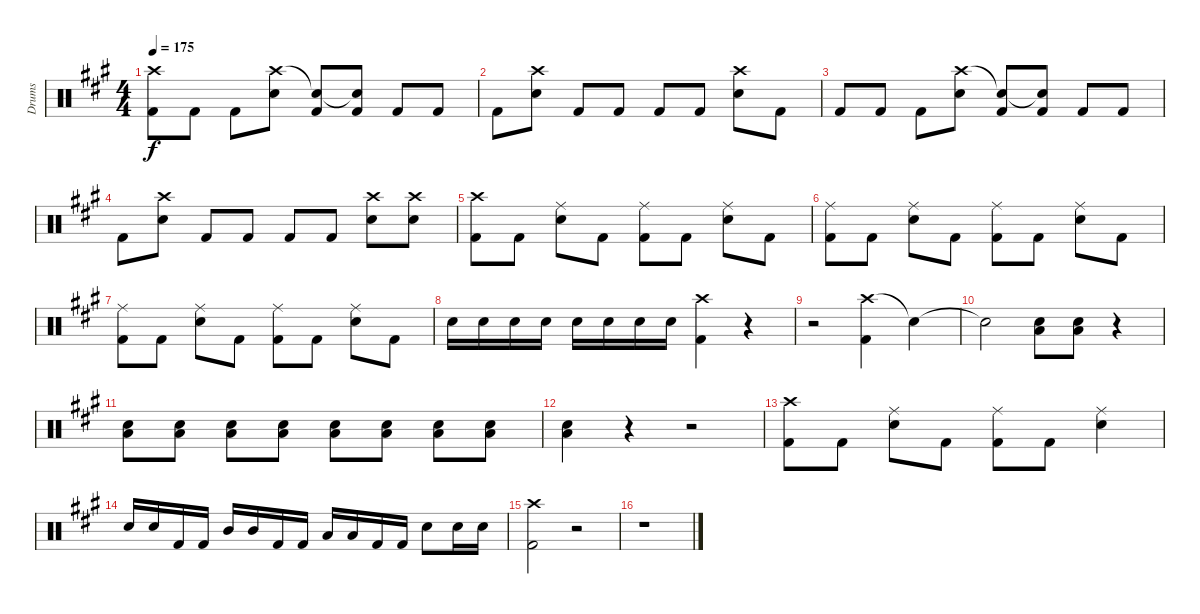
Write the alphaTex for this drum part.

\track ("Drums" "Drums") {instrument percussion}
\staff {score}
\articulation defaults
\ts (4 4)
\tempo 175
\clef neutral
\ks a
("Crash high (hit)" "Kick (hit) 2").8{dy f} "Kick (hit) 2".8 "Kick (hit) 2".8 ("Crash high (hit)" "Snare (hit) 2").8 ("Snare (hit)"{t} "Kick (hit) 2").8 ("Snare (hit)"{t} "Kick (hit) 2").8 "Kick (hit) 2".8 "Kick (hit) 2".8 |
"Kick (hit) 2".8 ("Crash high (hit)" "Snare (hit) 2").8 "Kick (hit) 2".8 "Kick (hit) 2".8 "Kick (hit) 2".8 "Kick (hit) 2".8 ("Crash high (hit)" "Snare (hit) 2").8 "Kick (hit) 2".8 |
"Kick (hit) 2".8 "Kick (hit) 2".8 "Kick (hit) 2".8 ("Crash high (hit)" "Snare (hit) 2").8 ("Snare (hit)"{t} "Kick (hit) 2").8 ("Snare (hit)"{t} "Kick (hit) 2").8 "Kick (hit) 2".8 "Kick (hit) 2".8 |
"Kick (hit) 2".8 ("Crash high (hit)" "Snare (hit) 2").8 "Kick (hit) 2".8 "Kick (hit) 2".8 "Kick (hit) 2".8 "Kick (hit) 2".8 ("Crash high (hit)" "Snare (hit) 2").8 ("Crash high (hit)" "Snare (hit) 2").8 |
("Crash high (hit)" "Kick (hit) 2").8 "Kick (hit) 2".8 ("Ride (middle)" "Snare (hit) 2").8 "Kick (hit) 2".8 ("Ride (middle)" "Kick (hit) 2").8 "Kick (hit) 2".8 ("Ride (middle)" "Snare (hit) 2").8 "Kick (hit) 2".8 |
("Ride (middle)" "Kick (hit) 2").8 "Kick (hit) 2".8 ("Ride (middle)" "Snare (hit) 2").8 "Kick (hit) 2".8 ("Ride (middle)" "Kick (hit) 2").8 "Kick (hit) 2".8 ("Ride (middle)" "Snare (hit) 2").8 "Kick (hit) 2".8 |
("Ride (middle)" "Kick (hit) 2").8 "Kick (hit) 2".8 ("Ride (middle)" "Snare (hit) 2").8 "Kick (hit) 2".8 ("Ride (middle)" "Kick (hit) 2").8 "Kick (hit) 2".8 ("Ride (middle)" "Snare (hit) 2").8 "Kick (hit) 2".8 |
"Snare (hit) 2".16 "Snare (hit) 2".16 "Snare (hit) 2".16 "Snare (hit) 2".16 "Snare (hit) 2".16 "Snare (hit) 2".16 "Snare (hit) 2".16 "Snare (hit) 2".16 ("Crash high (hit)" "Kick (hit) 2").4 r.4 |
r.2 ("Crash high (hit)" "Kick (hit) 2").4 "Snare (hit)"{t}.4 |
"Snare (hit)"{t}.2 ("Snare (hit) 2" "Low Floor Tom (hit)").8 ("Snare (hit) 2" "Low Floor Tom (hit)").8 r.4 |
("Snare (hit) 2" "Low Floor Tom (hit)").8 ("Snare (hit) 2" "Low Floor Tom (hit)").8 ("Snare (hit) 2" "Low Floor Tom (hit)").8 ("Snare (hit) 2" "Low Floor Tom (hit)").8 ("Snare (hit) 2" "Low Floor Tom (hit)").8 ("Snare (hit) 2" "Low Floor Tom (hit)").8 ("Snare (hit) 2" "Low Floor Tom (hit)").8 ("Snare (hit) 2" "Low Floor Tom (hit)").8 |
("Snare (hit) 2" "Low Floor Tom (hit)").4 r.4 r.2 |
("Crash high (hit)" "Kick (hit) 2").8 "Kick (hit) 2".8 ("Ride (middle)" "Snare (hit) 2").8 "Kick (hit) 2".8 ("Ride (middle)" "Kick (hit) 2").8 "Kick (hit) 2".8 ("Ride (middle)" "Snare (hit) 2").4 |
"Snare (hit) 2".16 "Snare (hit) 2".16 "Kick (hit) 2".16 "Kick (hit) 2".16 "Mid Tom (hit)".16 "Mid Tom (hit)".16 "Kick (hit) 2".16 "Kick (hit) 2".16 "Low Tom (hit)".16 "Low Tom (hit)".16 "Kick (hit) 2".16 "Kick (hit) 2".16 "Snare (hit) 2".8 "Snare (hit) 2".16 "Snare (hit) 2".16 |
("Crash high (hit)" "Kick (hit) 2").2 r.2 |
r.1
